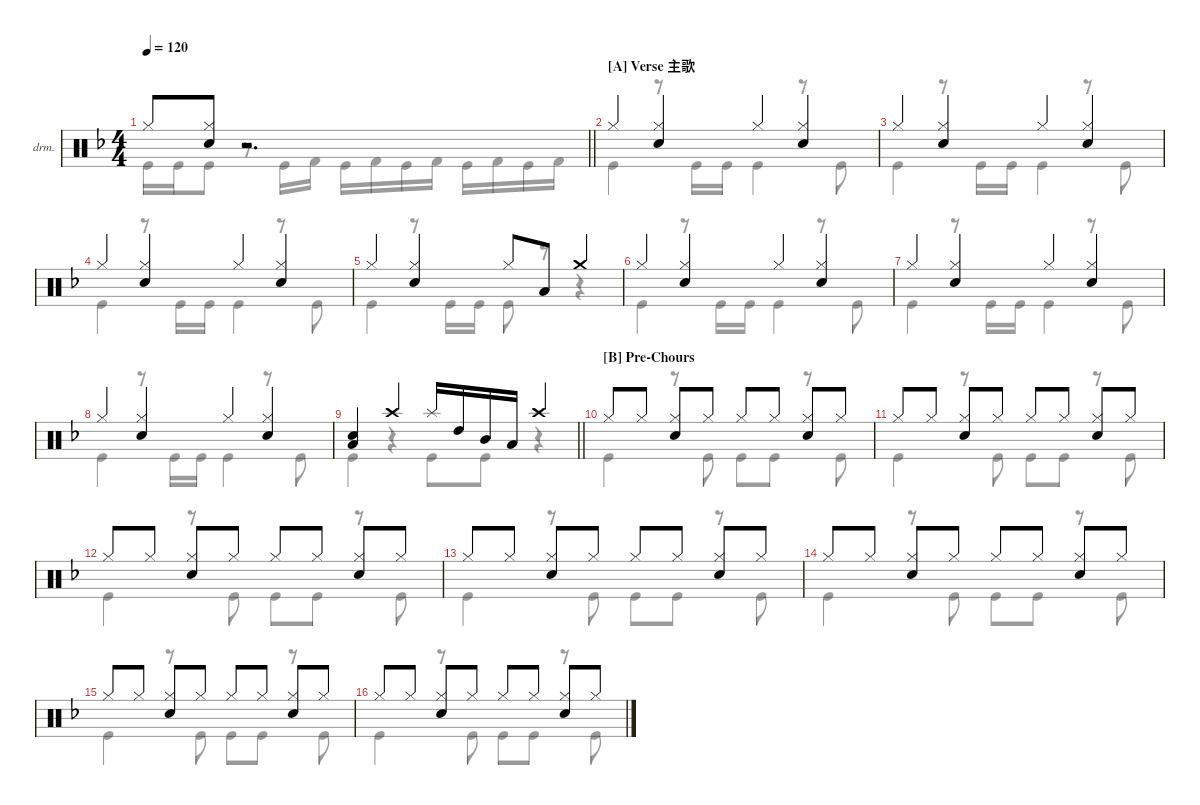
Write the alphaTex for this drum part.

\defaultSystemsLayout 4
\hideDynamics
\bracketExtendMode nobrackets
\firstSystemTrackNameOrientation horizontal
\track ("Drumkit" "drm.") {mute instrument percussion}
\staff {score}
\articulation defaults
\voice
\ts (4 4)
\tempo 120
\clef neutral
\barLineRight lightlight
\ks dminor "Hi-Hat (closed)"{acc forcenatural}.8{dy mf}
("Hi-Hat (closed)"{acc forcenatural} "Snare (hit) 2"{acc forcenatural}).8 r.2{d} |
\section ("A" "Verse 主歌")
"Hi-Hat (closed)"{acc forcenatural}.4 ("Snare (hit) 2"{acc forcenatural} "Hi-Hat (closed)"{acc forcenatural}).4 "Hi-Hat (closed)"{acc forcenatural}.4 ("Hi-Hat (closed)"{acc forcenatural} "Snare (hit) 2"{acc forcenatural}).4 |
"Hi-Hat (closed)"{acc forcenatural}.4 ("Snare (hit) 2"{acc forcenatural} "Hi-Hat (closed)"{acc forcenatural}).4 "Hi-Hat (closed)"{acc forcenatural}.4 ("Hi-Hat (closed)"{acc forcenatural} "Snare (hit) 2"{acc forcenatural}).4 |
"Hi-Hat (closed)"{acc forcenatural}.4 ("Snare (hit) 2"{acc forcenatural} "Hi-Hat (closed)"{acc forcenatural}).4 "Hi-Hat (closed)"{acc forcenatural}.4 ("Hi-Hat (closed)"{acc forcenatural} "Snare (hit) 2"{acc forcenatural}).4 |
"Hi-Hat (closed)"{acc forcenatural}.4 ("Snare (hit) 2"{acc forcenatural} "Hi-Hat (closed)"{acc forcenatural}).4 "Hi-Hat (closed)"{acc forcenatural}.8 "Low Floor Tom (hit)"{acc forcenatural}.8 "Crash medium (hit)"{acc forcenatural}.4 |
"Hi-Hat (closed)"{acc forcenatural}.4 ("Snare (hit) 2"{acc forcenatural} "Hi-Hat (closed)"{acc forcenatural}).4 "Hi-Hat (closed)"{acc forcenatural}.4 ("Hi-Hat (closed)"{acc forcenatural} "Snare (hit) 2"{acc forcenatural}).4 |
"Hi-Hat (closed)"{acc forcenatural}.4 ("Snare (hit) 2"{acc forcenatural} "Hi-Hat (closed)"{acc forcenatural}).4 "Hi-Hat (closed)"{acc forcenatural}.4 ("Hi-Hat (closed)"{acc forcenatural} "Snare (hit) 2"{acc forcenatural}).4 |
"Hi-Hat (closed)"{acc forcenatural}.4 ("Snare (hit) 2"{acc forcenatural} "Hi-Hat (closed)"{acc forcenatural}).4 "Hi-Hat (closed)"{acc forcenatural}.4 ("Hi-Hat (closed)"{acc forcenatural} "Snare (hit) 2"{acc forcenatural}).4 |
\barLineRight lightlight
("Snare (hit) 2"{acc forcenatural} "Low Floor Tom (hit)"{acc forcenatural}).4 "Crash high (hit)"{acc forcenatural}.4 "Splash (hit)"{acc forcenatural}.16 "High Tom (hit)"{acc forcenatural}.16 "Mid Tom (hit)"{acc forcenatural}.16 "Low Tom (hit)"{acc forcenatural}.16 "Crash high (hit)"{acc forcenatural}.4 |
\section ("B" "Pre-Chours")
"Hi-Hat (closed)"{acc forcenatural}.8 "Hi-Hat (closed)"{acc forcenatural}.8 ("Hi-Hat (closed)"{acc forcenatural} "Snare (hit) 2"{acc forcenatural}).8 "Hi-Hat (closed)"{acc forcenatural}.8 "Hi-Hat (closed)"{acc forcenatural}.8 "Hi-Hat (closed)"{acc forcenatural}.8 ("Hi-Hat (closed)"{acc forcenatural} "Snare (hit) 2"{acc forcenatural}).8 "Hi-Hat (closed)"{acc forcenatural}.8 |
"Hi-Hat (closed)"{acc forcenatural}.8 "Hi-Hat (closed)"{acc forcenatural}.8 ("Hi-Hat (closed)"{acc forcenatural} "Snare (hit) 2"{acc forcenatural}).8 "Hi-Hat (closed)"{acc forcenatural}.8 "Hi-Hat (closed)"{acc forcenatural}.8 "Hi-Hat (closed)"{acc forcenatural}.8 ("Hi-Hat (closed)"{acc forcenatural} "Snare (hit) 2"{acc forcenatural}).8 "Hi-Hat (closed)"{acc forcenatural}.8 |
"Hi-Hat (closed)"{acc forcenatural}.8 "Hi-Hat (closed)"{acc forcenatural}.8 ("Hi-Hat (closed)"{acc forcenatural} "Snare (hit) 2"{acc forcenatural}).8 "Hi-Hat (closed)"{acc forcenatural}.8 "Hi-Hat (closed)"{acc forcenatural}.8 "Hi-Hat (closed)"{acc forcenatural}.8 ("Hi-Hat (closed)"{acc forcenatural} "Snare (hit) 2"{acc forcenatural}).8 "Hi-Hat (closed)"{acc forcenatural}.8 |
"Hi-Hat (closed)"{acc forcenatural}.8 "Hi-Hat (closed)"{acc forcenatural}.8 ("Hi-Hat (closed)"{acc forcenatural} "Snare (hit) 2"{acc forcenatural}).8 "Hi-Hat (closed)"{acc forcenatural}.8 "Hi-Hat (closed)"{acc forcenatural}.8 "Hi-Hat (closed)"{acc forcenatural}.8 ("Hi-Hat (closed)"{acc forcenatural} "Snare (hit) 2"{acc forcenatural}).8 "Hi-Hat (closed)"{acc forcenatural}.8 |
"Hi-Hat (closed)"{acc forcenatural}.8 "Hi-Hat (closed)"{acc forcenatural}.8 ("Hi-Hat (closed)"{acc forcenatural} "Snare (hit) 2"{acc forcenatural}).8 "Hi-Hat (closed)"{acc forcenatural}.8 "Hi-Hat (closed)"{acc forcenatural}.8 "Hi-Hat (closed)"{acc forcenatural}.8 ("Hi-Hat (closed)"{acc forcenatural} "Snare (hit) 2"{acc forcenatural}).8 "Hi-Hat (closed)"{acc forcenatural}.8 |
"Hi-Hat (closed)"{acc forcenatural}.8 "Hi-Hat (closed)"{acc forcenatural}.8 ("Hi-Hat (closed)"{acc forcenatural} "Snare (hit) 2"{acc forcenatural}).8 "Hi-Hat (closed)"{acc forcenatural}.8 "Hi-Hat (closed)"{acc forcenatural}.8 "Hi-Hat (closed)"{acc forcenatural}.8 ("Hi-Hat (closed)"{acc forcenatural} "Snare (hit) 2"{acc forcenatural}).8 "Hi-Hat (closed)"{acc forcenatural}.8 |
"Hi-Hat (closed)"{acc forcenatural}.8 "Hi-Hat (closed)"{acc forcenatural}.8 ("Hi-Hat (closed)"{acc forcenatural} "Snare (hit) 2"{acc forcenatural}).8 "Hi-Hat (closed)"{acc forcenatural}.8 "Hi-Hat (closed)"{acc forcenatural}.8 "Hi-Hat (closed)"{acc forcenatural}.8 ("Hi-Hat (closed)"{acc forcenatural} "Snare (hit) 2"{acc forcenatural}).8 "Hi-Hat (closed)"{acc forcenatural}.8
\voice
\clef neutral
\ottava regular
\simile none
\barLineRight lightlight
\ks dminor "Kick (hit)"{acc forcenatural}.16{dy mf} "Kick (hit)"{acc forcenatural}.16 "Kick (hit)"{acc forcenatural}.8
r.8 "Kick (hit)"{acc forcenatural}.16 "Kick (hit) 2"{acc forcenatural}.16 "Kick (hit)"{acc forcenatural}.16 "Kick (hit) 2"{acc forcenatural}.16 "Kick (hit)"{acc forcenatural}.16 "Kick (hit) 2"{acc forcenatural}.16 "Kick (hit)"{acc forcenatural}.16 "Kick (hit) 2"{acc forcenatural}.16 "Kick (hit)"{acc forcenatural}.16 "Kick (hit) 2"{acc forcenatural}.16 |
"Kick (hit)"{acc forcenatural}.4 r.8 "Kick (hit)"{acc forcenatural}.16 "Kick (hit)"{acc forcenatural}.16 "Kick (hit)"{acc forcenatural}.4 r.8 "Kick (hit)"{acc forcenatural}.8 |
"Kick (hit)"{acc forcenatural}.4 r.8 "Kick (hit)"{acc forcenatural}.16 "Kick (hit)"{acc forcenatural}.16 "Kick (hit)"{acc forcenatural}.4 r.8 "Kick (hit)"{acc forcenatural}.8 |
"Kick (hit)"{acc forcenatural}.4 r.8 "Kick (hit)"{acc forcenatural}.16 "Kick (hit)"{acc forcenatural}.16 "Kick (hit)"{acc forcenatural}.4 r.8 "Kick (hit)"{acc forcenatural}.8 |
"Kick (hit)"{acc forcenatural}.4 r.8 "Kick (hit)"{acc forcenatural}.16 "Kick (hit)"{acc forcenatural}.16 "Kick (hit)"{acc forcenatural}.8 r.8 r.4 |
"Kick (hit)"{acc forcenatural}.4 r.8 "Kick (hit)"{acc forcenatural}.16 "Kick (hit)"{acc forcenatural}.16 "Kick (hit)"{acc forcenatural}.4 r.8 "Kick (hit)"{acc forcenatural}.8 |
"Kick (hit)"{acc forcenatural}.4 r.8 "Kick (hit)"{acc forcenatural}.16 "Kick (hit)"{acc forcenatural}.16 "Kick (hit)"{acc forcenatural}.4 r.8 "Kick (hit)"{acc forcenatural}.8 |
"Kick (hit)"{acc forcenatural}.4 r.8 "Kick (hit)"{acc forcenatural}.16 "Kick (hit)"{acc forcenatural}.16 "Kick (hit)"{acc forcenatural}.4 r.8 "Kick (hit)"{acc forcenatural}.8 |
\barLineRight lightlight "Kick (hit)"{acc forcenatural}.4
r.4 "Kick (hit)"{acc forcenatural}.8 "Kick (hit)"{acc forcenatural}.8 r.4 |
"Kick (hit)"{acc forcenatural}.4 r.8 "Kick (hit)"{acc forcenatural}.8 "Kick (hit)"{acc forcenatural}.8 "Kick (hit)"{acc forcenatural}.8 r.8 "Kick (hit)"{acc forcenatural}.8 |
"Kick (hit)"{acc forcenatural}.4 r.8 "Kick (hit)"{acc forcenatural}.8 "Kick (hit)"{acc forcenatural}.8 "Kick (hit)"{acc forcenatural}.8 r.8 "Kick (hit)"{acc forcenatural}.8 |
"Kick (hit)"{acc forcenatural}.4 r.8 "Kick (hit)"{acc forcenatural}.8 "Kick (hit)"{acc forcenatural}.8 "Kick (hit)"{acc forcenatural}.8 r.8 "Kick (hit)"{acc forcenatural}.8 |
"Kick (hit)"{acc forcenatural}.4 r.8 "Kick (hit)"{acc forcenatural}.8 "Kick (hit)"{acc forcenatural}.8 "Kick (hit)"{acc forcenatural}.8 r.8 "Kick (hit)"{acc forcenatural}.8 |
"Kick (hit)"{acc forcenatural}.4 r.8 "Kick (hit)"{acc forcenatural}.8 "Kick (hit)"{acc forcenatural}.8 "Kick (hit)"{acc forcenatural}.8 r.8 "Kick (hit)"{acc forcenatural}.8 |
"Kick (hit)"{acc forcenatural}.4 r.8 "Kick (hit)"{acc forcenatural}.8 "Kick (hit)"{acc forcenatural}.8 "Kick (hit)"{acc forcenatural}.8 r.8 "Kick (hit)"{acc forcenatural}.8 |
"Kick (hit)"{acc forcenatural}.4 r.8 "Kick (hit)"{acc forcenatural}.8 "Kick (hit)"{acc forcenatural}.8 "Kick (hit)"{acc forcenatural}.8 r.8 "Kick (hit)"{acc forcenatural}.8
